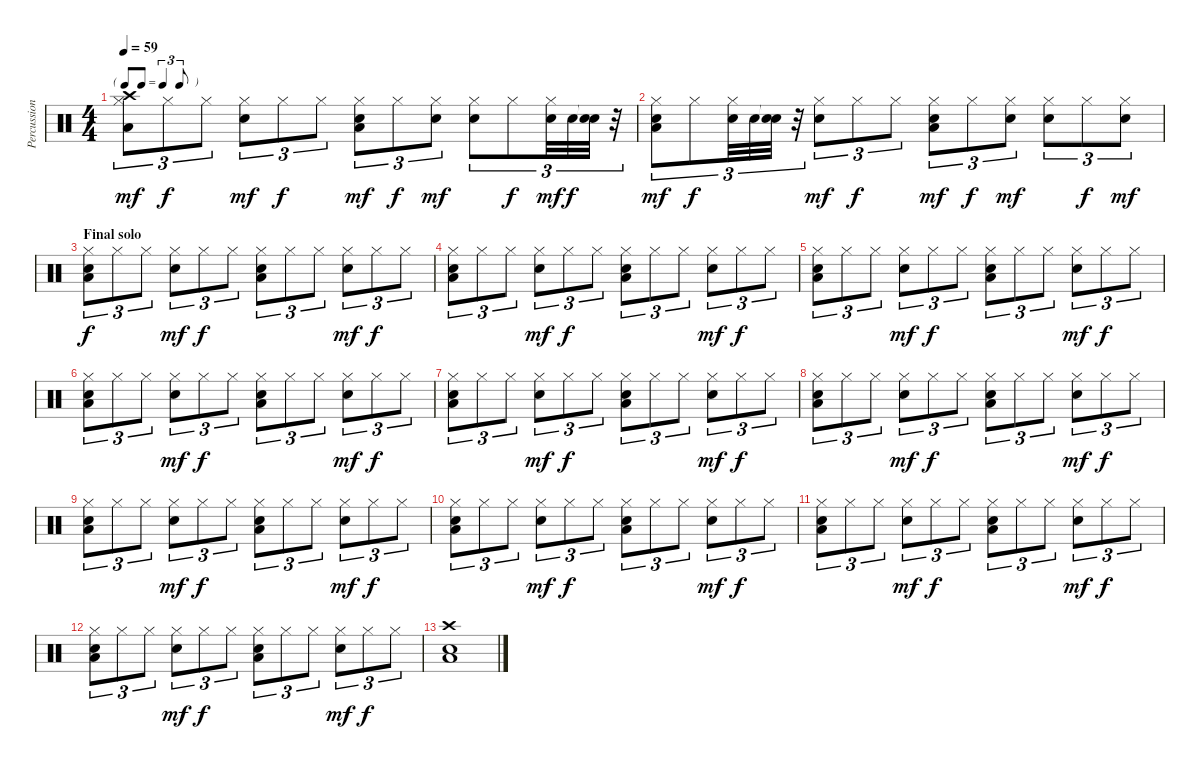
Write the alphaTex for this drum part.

\track ("Percussions (Billasse)" "Percussion") {instrument percussion}
\staff {score}
\articulation defaults
\ts (4 4)
\tf triplet8th
\tempo 59
\clef neutral
\ks c
("Hi-Hat (closed)" "Low Floor Tom (hit)" "Crash high (hit)").8{tu (3 2) dy mf} "Hi-Hat (closed)".8{tu (3 2) dy f} "Hi-Hat (closed)".8{tu (3 2)} ("Hi-Hat (closed)" "Electric Snare (hit)").8{tu (3 2) dy mf} "Hi-Hat (closed)".8{tu (3 2) dy f} "Hi-Hat (closed)".8{tu (3 2)} ("Hi-Hat (closed)" "Low Floor Tom (hit)" "Electric Snare (hit)").8{tu (3 2) dy mf} "Hi-Hat (closed)".8{tu (3 2) dy f} ("Hi-Hat (closed)" "Electric Snare (hit)").8{tu (3 2) dy mf} ("Hi-Hat (closed)" "Electric Snare (hit)").8{tu (3 2)} "Hi-Hat (closed)".8{tu (3 2) dy f} ("Hi-Hat (closed)" "Electric Snare (hit)").32{tu (3 2) dy mf} "Electric Snare (hit)".32{tu (3 2) dy f} ("Snare (hit)"{t} "Electric Snare (hit)").32{tu (3 2)} r.32{tu (3 2)} |
("Hi-Hat (closed)" "Low Floor Tom (hit)" "Electric Snare (hit)").8{tu (3 2) dy mf} "Hi-Hat (closed)".8{tu (3 2) dy f} ("Hi-Hat (closed)" "Electric Snare (hit)").32{tu (3 2)} "Electric Snare (hit)".32{tu (3 2)} ("Snare (hit)"{t} "Electric Snare (hit)").32{tu (3 2)} r.32{tu (3 2)} ("Hi-Hat (closed)" "Electric Snare (hit)").8{tu (3 2) dy mf} "Hi-Hat (closed)".8{tu (3 2) dy f} "Hi-Hat (closed)".8{tu (3 2)} ("Hi-Hat (closed)" "Low Floor Tom (hit)" "Electric Snare (hit)").8{tu (3 2) dy mf} "Hi-Hat (closed)".8{tu (3 2) dy f} ("Hi-Hat (closed)" "Electric Snare (hit)").8{tu (3 2) dy mf} ("Hi-Hat (closed)" "Electric Snare (hit)").8{tu (3 2)} "Hi-Hat (closed)".8{tu (3 2) dy f} ("Hi-Hat (closed)" "Electric Snare (hit)").8{tu (3 2) dy mf} |
\section ("" "Final solo")
("Hi-Hat (closed)" "Electric Snare (hit)" "Low Floor Tom (hit)").8{tu (3 2) dy f} "Hi-Hat (closed)".8{tu (3 2)} "Hi-Hat (closed)".8{tu (3 2)} ("Hi-Hat (closed)" "Electric Snare (hit)").8{tu (3 2) dy mf} "Hi-Hat (closed)".8{tu (3 2) dy f} "Hi-Hat (closed)".8{tu (3 2)} ("Hi-Hat (closed)" "Electric Snare (hit)" "Low Floor Tom (hit)").8{tu (3 2)} "Hi-Hat (closed)".8{tu (3 2)} "Hi-Hat (closed)".8{tu (3 2)} ("Hi-Hat (closed)" "Electric Snare (hit)").8{tu (3 2) dy mf} "Hi-Hat (closed)".8{tu (3 2) dy f} "Hi-Hat (closed)".8{tu (3 2)} |
("Hi-Hat (closed)" "Electric Snare (hit)" "Low Floor Tom (hit)").8{tu (3 2)} "Hi-Hat (closed)".8{tu (3 2)} "Hi-Hat (closed)".8{tu (3 2)} ("Hi-Hat (closed)" "Electric Snare (hit)").8{tu (3 2) dy mf} "Hi-Hat (closed)".8{tu (3 2) dy f} "Hi-Hat (closed)".8{tu (3 2)} ("Hi-Hat (closed)" "Electric Snare (hit)" "Low Floor Tom (hit)").8{tu (3 2)} "Hi-Hat (closed)".8{tu (3 2)} "Hi-Hat (closed)".8{tu (3 2)} ("Hi-Hat (closed)" "Electric Snare (hit)").8{tu (3 2) dy mf} "Hi-Hat (closed)".8{tu (3 2) dy f} "Hi-Hat (closed)".8{tu (3 2)} |
("Hi-Hat (closed)" "Electric Snare (hit)" "Low Floor Tom (hit)").8{tu (3 2)} "Hi-Hat (closed)".8{tu (3 2)} "Hi-Hat (closed)".8{tu (3 2)} ("Hi-Hat (closed)" "Electric Snare (hit)").8{tu (3 2) dy mf} "Hi-Hat (closed)".8{tu (3 2) dy f} "Hi-Hat (closed)".8{tu (3 2)} ("Hi-Hat (closed)" "Electric Snare (hit)" "Low Floor Tom (hit)").8{tu (3 2)} "Hi-Hat (closed)".8{tu (3 2)} "Hi-Hat (closed)".8{tu (3 2)} ("Hi-Hat (closed)" "Electric Snare (hit)").8{tu (3 2) dy mf} "Hi-Hat (closed)".8{tu (3 2) dy f} "Hi-Hat (closed)".8{tu (3 2)} |
("Hi-Hat (closed)" "Electric Snare (hit)" "Low Floor Tom (hit)").8{tu (3 2)} "Hi-Hat (closed)".8{tu (3 2)} "Hi-Hat (closed)".8{tu (3 2)} ("Hi-Hat (closed)" "Electric Snare (hit)").8{tu (3 2) dy mf} "Hi-Hat (closed)".8{tu (3 2) dy f} "Hi-Hat (closed)".8{tu (3 2)} ("Hi-Hat (closed)" "Electric Snare (hit)" "Low Floor Tom (hit)").8{tu (3 2)} "Hi-Hat (closed)".8{tu (3 2)} "Hi-Hat (closed)".8{tu (3 2)} ("Hi-Hat (closed)" "Electric Snare (hit)").8{tu (3 2) dy mf} "Hi-Hat (closed)".8{tu (3 2) dy f} "Hi-Hat (closed)".8{tu (3 2)} |
("Hi-Hat (closed)" "Electric Snare (hit)" "Low Floor Tom (hit)").8{tu (3 2)} "Hi-Hat (closed)".8{tu (3 2)} "Hi-Hat (closed)".8{tu (3 2)} ("Hi-Hat (closed)" "Electric Snare (hit)").8{tu (3 2) dy mf} "Hi-Hat (closed)".8{tu (3 2) dy f} "Hi-Hat (closed)".8{tu (3 2)} ("Hi-Hat (closed)" "Electric Snare (hit)" "Low Floor Tom (hit)").8{tu (3 2)} "Hi-Hat (closed)".8{tu (3 2)} "Hi-Hat (closed)".8{tu (3 2)} ("Hi-Hat (closed)" "Electric Snare (hit)").8{tu (3 2) dy mf} "Hi-Hat (closed)".8{tu (3 2) dy f} "Hi-Hat (closed)".8{tu (3 2)} |
("Hi-Hat (closed)" "Electric Snare (hit)" "Low Floor Tom (hit)").8{tu (3 2)} "Hi-Hat (closed)".8{tu (3 2)} "Hi-Hat (closed)".8{tu (3 2)} ("Hi-Hat (closed)" "Electric Snare (hit)").8{tu (3 2) dy mf} "Hi-Hat (closed)".8{tu (3 2) dy f} "Hi-Hat (closed)".8{tu (3 2)} ("Hi-Hat (closed)" "Electric Snare (hit)" "Low Floor Tom (hit)").8{tu (3 2)} "Hi-Hat (closed)".8{tu (3 2)} "Hi-Hat (closed)".8{tu (3 2)} ("Hi-Hat (closed)" "Electric Snare (hit)").8{tu (3 2) dy mf} "Hi-Hat (closed)".8{tu (3 2) dy f} "Hi-Hat (closed)".8{tu (3 2)} |
("Hi-Hat (closed)" "Electric Snare (hit)" "Low Floor Tom (hit)").8{tu (3 2)} "Hi-Hat (closed)".8{tu (3 2)} "Hi-Hat (closed)".8{tu (3 2)} ("Hi-Hat (closed)" "Electric Snare (hit)").8{tu (3 2) dy mf} "Hi-Hat (closed)".8{tu (3 2) dy f} "Hi-Hat (closed)".8{tu (3 2)} ("Hi-Hat (closed)" "Electric Snare (hit)" "Low Floor Tom (hit)").8{tu (3 2)} "Hi-Hat (closed)".8{tu (3 2)} "Hi-Hat (closed)".8{tu (3 2)} ("Hi-Hat (closed)" "Electric Snare (hit)").8{tu (3 2) dy mf} "Hi-Hat (closed)".8{tu (3 2) dy f} "Hi-Hat (closed)".8{tu (3 2)} |
("Hi-Hat (closed)" "Electric Snare (hit)" "Low Floor Tom (hit)").8{tu (3 2)} "Hi-Hat (closed)".8{tu (3 2)} "Hi-Hat (closed)".8{tu (3 2)} ("Hi-Hat (closed)" "Electric Snare (hit)").8{tu (3 2) dy mf} "Hi-Hat (closed)".8{tu (3 2) dy f} "Hi-Hat (closed)".8{tu (3 2)} ("Hi-Hat (closed)" "Electric Snare (hit)" "Low Floor Tom (hit)").8{tu (3 2)} "Hi-Hat (closed)".8{tu (3 2)} "Hi-Hat (closed)".8{tu (3 2)} ("Hi-Hat (closed)" "Electric Snare (hit)").8{tu (3 2) dy mf} "Hi-Hat (closed)".8{tu (3 2) dy f} "Hi-Hat (closed)".8{tu (3 2)} |
("Hi-Hat (closed)" "Electric Snare (hit)" "Low Floor Tom (hit)").8{tu (3 2)} "Hi-Hat (closed)".8{tu (3 2)} "Hi-Hat (closed)".8{tu (3 2)} ("Hi-Hat (closed)" "Electric Snare (hit)").8{tu (3 2) dy mf} "Hi-Hat (closed)".8{tu (3 2) dy f} "Hi-Hat (closed)".8{tu (3 2)} ("Hi-Hat (closed)" "Electric Snare (hit)" "Low Floor Tom (hit)").8{tu (3 2)} "Hi-Hat (closed)".8{tu (3 2)} "Hi-Hat (closed)".8{tu (3 2)} ("Hi-Hat (closed)" "Electric Snare (hit)").8{tu (3 2) dy mf} "Hi-Hat (closed)".8{tu (3 2) dy f} "Hi-Hat (closed)".8{tu (3 2)} |
("Hi-Hat (closed)" "Electric Snare (hit)" "Low Floor Tom (hit)").8{tu (3 2)} "Hi-Hat (closed)".8{tu (3 2)} "Hi-Hat (closed)".8{tu (3 2)} ("Hi-Hat (closed)" "Electric Snare (hit)").8{tu (3 2) dy mf} "Hi-Hat (closed)".8{tu (3 2) dy f} "Hi-Hat (closed)".8{tu (3 2)} ("Hi-Hat (closed)" "Electric Snare (hit)" "Low Floor Tom (hit)").8{tu (3 2)} "Hi-Hat (closed)".8{tu (3 2)} "Hi-Hat (closed)".8{tu (3 2)} ("Hi-Hat (closed)" "Electric Snare (hit)").8{tu (3 2) dy mf} "Hi-Hat (closed)".8{tu (3 2) dy f} "Hi-Hat (closed)".8{tu (3 2)} |
("Electric Snare (hit)" "Crash high (hit)" "Low Floor Tom (hit)").1
